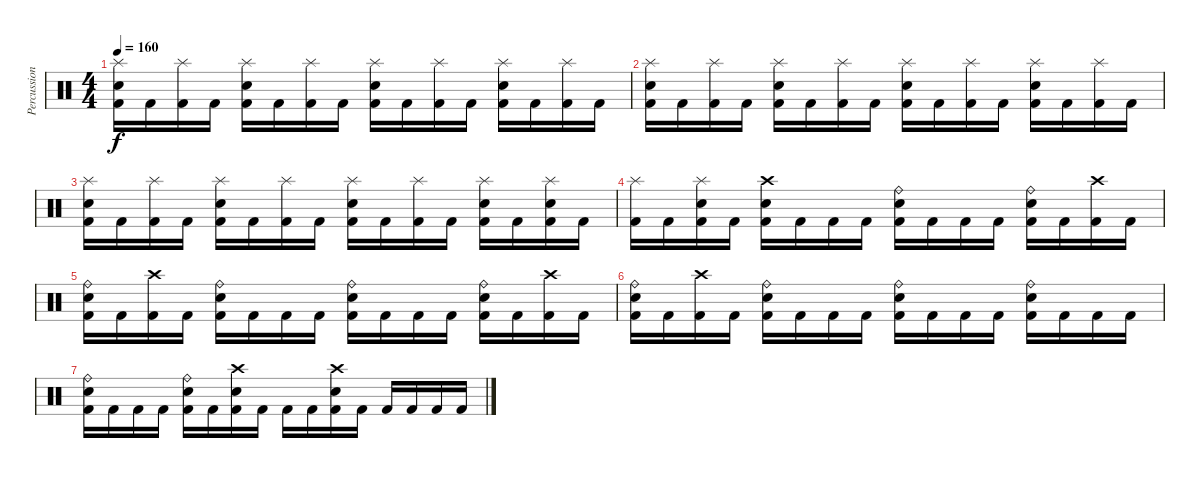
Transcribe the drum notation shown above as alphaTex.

\track ("Percussions" "Percussion") {instrument percussion bank 1}
\staff {score}
\articulation defaults
\ts (4 4)
\tempo 160
\clef neutral
\ks c
("Kick (hit) 2" "Electric Snare (hit)" "Splash (hit)").16{dy f} "Kick (hit) 2".16 ("Kick (hit) 2" "Splash (hit)").16 "Kick (hit) 2".16 ("Kick (hit) 2" "Electric Snare (hit)" "Splash (hit)").16 "Kick (hit) 2".16 ("Kick (hit) 2" "Splash (hit)").16 "Kick (hit) 2".16 ("Kick (hit) 2" "Electric Snare (hit)" "Splash (hit)").16 "Kick (hit) 2".16 ("Kick (hit) 2" "Splash (hit)").16 "Kick (hit) 2".16 ("Kick (hit) 2" "Electric Snare (hit)" "Splash (hit)").16 "Kick (hit) 2".16 ("Kick (hit) 2" "Splash (hit)").16 "Kick (hit) 2".16 |
("Kick (hit) 2" "Electric Snare (hit)" "Splash (hit)").16 "Kick (hit) 2".16 ("Kick (hit) 2" "Splash (hit)").16 "Kick (hit) 2".16 ("Kick (hit) 2" "Electric Snare (hit)" "Splash (hit)").16 "Kick (hit) 2".16 ("Kick (hit) 2" "Splash (hit)").16 "Kick (hit) 2".16 ("Kick (hit) 2" "Electric Snare (hit)" "Splash (hit)").16 "Kick (hit) 2".16 ("Kick (hit) 2" "Splash (hit)").16 "Kick (hit) 2".16 ("Kick (hit) 2" "Electric Snare (hit)" "Splash (hit)").16 "Kick (hit) 2".16 ("Kick (hit) 2" "Splash (hit)").16 "Kick (hit) 2".16 |
("Kick (hit) 2" "Electric Snare (hit)" "Splash (hit)").16 "Kick (hit) 2".16 ("Kick (hit) 2" "Splash (hit)").16 "Kick (hit) 2".16 ("Kick (hit) 2" "Electric Snare (hit)" "Splash (hit)").16 "Kick (hit) 2".16 ("Kick (hit) 2" "Splash (hit)").16 "Kick (hit) 2".16 ("Kick (hit) 2" "Electric Snare (hit)" "Splash (hit)").16 "Kick (hit) 2".16 ("Kick (hit) 2" "Splash (hit)").16 "Kick (hit) 2".16 ("Kick (hit) 2" "Electric Snare (hit)" "Splash (hit)").16 "Kick (hit) 2".16 ("Kick (hit) 2" "Electric Snare (hit)" "Splash (hit)").16 "Kick (hit) 2".16 |
("Kick (hit) 2" "Splash (hit)").16 "Kick (hit) 2".16 ("Kick (hit) 2" "Electric Snare (hit)" "Splash (hit)").16 "Kick (hit) 2".16 ("Kick (hit) 2" "Electric Snare (hit)" "Crash high (hit)").16 "Kick (hit) 2".16 "Kick (hit) 2".16 "Kick (hit) 2".16 ("Kick (hit) 2" "Electric Snare (hit)" "Ride (bell)").16 "Kick (hit) 2".16 "Kick (hit) 2".16 "Kick (hit) 2".16 ("Kick (hit) 2" "Electric Snare (hit)" "Ride (bell)").16 "Kick (hit) 2".16 ("Kick (hit) 2" "Crash high (hit)").16 "Kick (hit) 2".16 |
("Kick (hit) 2" "Electric Snare (hit)" "Ride (bell)").16 "Kick (hit) 2".16 ("Kick (hit) 2" "Crash high (hit)").16 "Kick (hit) 2".16 ("Kick (hit) 2" "Electric Snare (hit)" "Ride (bell)").16 "Kick (hit) 2".16 "Kick (hit) 2".16 "Kick (hit) 2".16 ("Kick (hit) 2" "Electric Snare (hit)" "Ride (bell)").16 "Kick (hit) 2".16 "Kick (hit) 2".16 "Kick (hit) 2".16 ("Kick (hit) 2" "Electric Snare (hit)" "Ride (bell)").16 "Kick (hit) 2".16 ("Kick (hit) 2" "Crash high (hit)").16 "Kick (hit) 2".16 |
("Kick (hit) 2" "Electric Snare (hit)" "Ride (bell)").16 "Kick (hit) 2".16 ("Kick (hit) 2" "Crash high (hit)").16 "Kick (hit) 2".16 ("Kick (hit) 2" "Electric Snare (hit)" "Ride (bell)").16 "Kick (hit) 2".16 "Kick (hit) 2".16 "Kick (hit) 2".16 ("Kick (hit) 2" "Electric Snare (hit)" "Ride (bell)").16 "Kick (hit) 2".16 "Kick (hit) 2".16 "Kick (hit) 2".16 ("Kick (hit) 2" "Electric Snare (hit)" "Ride (bell)").16 "Kick (hit) 2".16 "Kick (hit) 2".16 "Kick (hit) 2".16 |
("Kick (hit) 2" "Electric Snare (hit)" "Ride (bell)").16 "Kick (hit) 2".16 "Kick (hit) 2".16 "Kick (hit) 2".16 ("Kick (hit) 2" "Electric Snare (hit)" "Ride (bell)").16 "Kick (hit) 2".16 ("Kick (hit) 2" "Electric Snare (hit)" "Crash high (hit)").16 "Kick (hit) 2".16 "Kick (hit) 2".16 "Kick (hit) 2".16 ("Kick (hit) 2" "Electric Snare (hit)" "Crash high (hit)").16 "Kick (hit) 2".16 "Kick (hit) 2".16 "Kick (hit) 2".16 "Kick (hit) 2".16 "Kick (hit) 2".16
